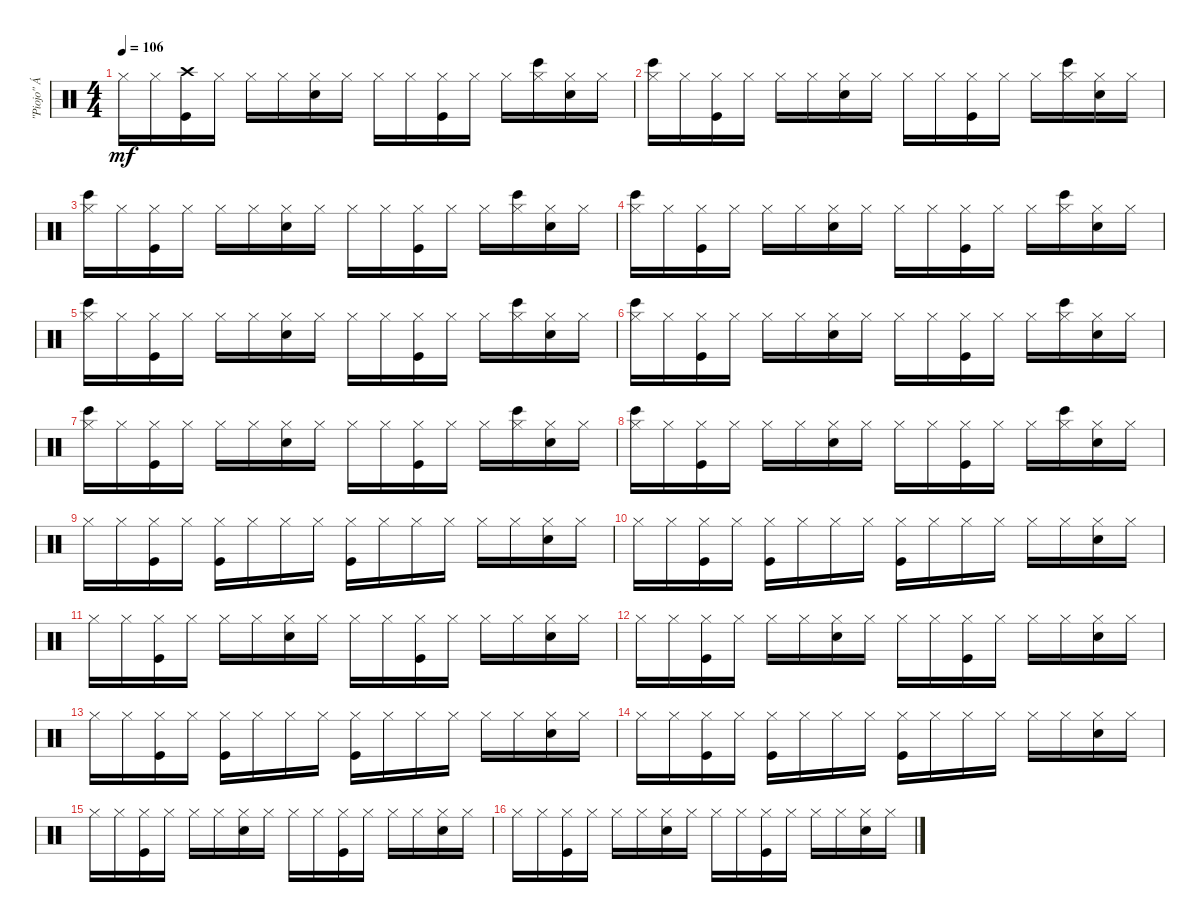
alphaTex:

\track (" \"Piojo\" Ávalos" " \"Piojo\" Á") {instrument percussion}
\staff {score}
\articulation defaults
\ts (4 4)
\tempo 106
\clef neutral
\ks c "Hi-Hat (closed)".16{dy mf} "Hi-Hat (closed)".16
("Crash high (hit)" "Kick (hit)").16 "Hi-Hat (closed)".16 "Hi-Hat (closed)".16 "Hi-Hat (closed)".16 ("Hi-Hat (closed)" "Electric Snare (hit)").16 "Hi-Hat (closed)".16 "Hi-Hat (closed)".16 "Hi-Hat (closed)".16 ("Hi-Hat (closed)" "Kick (hit)").16 "Hi-Hat (closed)".16 "Hi-Hat (closed)".16 ("Bongo High (hit)" "Hi-Hat (closed)").16 ("Hi-Hat (closed)" "Electric Snare (hit)").16 "Hi-Hat (closed)".16 |
("Bongo High (hit)" "Hi-Hat (closed)").16 "Hi-Hat (closed)".16 ("Hi-Hat (closed)" "Kick (hit)").16 "Hi-Hat (closed)".16 "Hi-Hat (closed)".16 "Hi-Hat (closed)".16 ("Hi-Hat (closed)" "Electric Snare (hit)").16 "Hi-Hat (closed)".16 "Hi-Hat (closed)".16 "Hi-Hat (closed)".16 ("Hi-Hat (closed)" "Kick (hit)").16 "Hi-Hat (closed)".16 "Hi-Hat (closed)".16 ("Bongo High (hit)" "Hi-Hat (closed)").16 ("Hi-Hat (closed)" "Electric Snare (hit)").16 "Hi-Hat (closed)".16 |
("Bongo High (hit)" "Hi-Hat (closed)").16 "Hi-Hat (closed)".16 ("Hi-Hat (closed)" "Kick (hit)").16 "Hi-Hat (closed)".16 "Hi-Hat (closed)".16 "Hi-Hat (closed)".16 ("Hi-Hat (closed)" "Electric Snare (hit)").16 "Hi-Hat (closed)".16 "Hi-Hat (closed)".16 "Hi-Hat (closed)".16 ("Hi-Hat (closed)" "Kick (hit)").16 "Hi-Hat (closed)".16 "Hi-Hat (closed)".16 ("Bongo High (hit)" "Hi-Hat (closed)").16 ("Hi-Hat (closed)" "Electric Snare (hit)").16 "Hi-Hat (closed)".16 |
("Bongo High (hit)" "Hi-Hat (closed)").16 "Hi-Hat (closed)".16 ("Hi-Hat (closed)" "Kick (hit)").16 "Hi-Hat (closed)".16 "Hi-Hat (closed)".16 "Hi-Hat (closed)".16 ("Hi-Hat (closed)" "Electric Snare (hit)").16 "Hi-Hat (closed)".16 "Hi-Hat (closed)".16 "Hi-Hat (closed)".16 ("Hi-Hat (closed)" "Kick (hit)").16 "Hi-Hat (closed)".16 "Hi-Hat (closed)".16 ("Bongo High (hit)" "Hi-Hat (closed)").16 ("Hi-Hat (closed)" "Electric Snare (hit)").16 "Hi-Hat (closed)".16 |
("Bongo High (hit)" "Hi-Hat (closed)").16 "Hi-Hat (closed)".16 ("Hi-Hat (closed)" "Kick (hit)").16 "Hi-Hat (closed)".16 "Hi-Hat (closed)".16 "Hi-Hat (closed)".16 ("Hi-Hat (closed)" "Electric Snare (hit)").16 "Hi-Hat (closed)".16 "Hi-Hat (closed)".16 "Hi-Hat (closed)".16 ("Hi-Hat (closed)" "Kick (hit)").16 "Hi-Hat (closed)".16 "Hi-Hat (closed)".16 ("Bongo High (hit)" "Hi-Hat (closed)").16 ("Hi-Hat (closed)" "Electric Snare (hit)").16 "Hi-Hat (closed)".16 |
("Bongo High (hit)" "Hi-Hat (closed)").16 "Hi-Hat (closed)".16 ("Hi-Hat (closed)" "Kick (hit)").16 "Hi-Hat (closed)".16 "Hi-Hat (closed)".16 "Hi-Hat (closed)".16 ("Hi-Hat (closed)" "Electric Snare (hit)").16 "Hi-Hat (closed)".16 "Hi-Hat (closed)".16 "Hi-Hat (closed)".16 ("Hi-Hat (closed)" "Kick (hit)").16 "Hi-Hat (closed)".16 "Hi-Hat (closed)".16 ("Bongo High (hit)" "Hi-Hat (closed)").16 ("Hi-Hat (closed)" "Electric Snare (hit)").16 "Hi-Hat (closed)".16 |
("Bongo High (hit)" "Hi-Hat (closed)").16 "Hi-Hat (closed)".16 ("Hi-Hat (closed)" "Kick (hit)").16 "Hi-Hat (closed)".16 "Hi-Hat (closed)".16 "Hi-Hat (closed)".16 ("Hi-Hat (closed)" "Electric Snare (hit)").16 "Hi-Hat (closed)".16 "Hi-Hat (closed)".16 "Hi-Hat (closed)".16 ("Hi-Hat (closed)" "Kick (hit)").16 "Hi-Hat (closed)".16 "Hi-Hat (closed)".16 ("Bongo High (hit)" "Hi-Hat (closed)").16 ("Hi-Hat (closed)" "Electric Snare (hit)").16 "Hi-Hat (closed)".16 |
("Bongo High (hit)" "Hi-Hat (closed)").16 "Hi-Hat (closed)".16 ("Hi-Hat (closed)" "Kick (hit)").16 "Hi-Hat (closed)".16 "Hi-Hat (closed)".16 "Hi-Hat (closed)".16 ("Hi-Hat (closed)" "Electric Snare (hit)").16 "Hi-Hat (closed)".16 "Hi-Hat (closed)".16 "Hi-Hat (closed)".16 ("Hi-Hat (closed)" "Kick (hit)").16 "Hi-Hat (closed)".16 "Hi-Hat (closed)".16 ("Bongo High (hit)" "Hi-Hat (closed)").16 ("Hi-Hat (closed)" "Electric Snare (hit)").16 "Hi-Hat (closed)".16 |
"Hi-Hat (closed)".16 "Hi-Hat (closed)".16 ("Hi-Hat (closed)" "Kick (hit)").16 "Hi-Hat (closed)".16 ("Hi-Hat (closed)" "Kick (hit)").16 "Hi-Hat (closed)".16 "Hi-Hat (closed)".16 "Hi-Hat (closed)".16 ("Hi-Hat (closed)" "Kick (hit)").16 "Hi-Hat (closed)".16 "Hi-Hat (closed)".16 "Hi-Hat (closed)".16 "Hi-Hat (closed)".16 "Hi-Hat (closed)".16 ("Hi-Hat (closed)" "Electric Snare (hit)").16 "Hi-Hat (closed)".16 |
"Hi-Hat (closed)".16 "Hi-Hat (closed)".16 ("Hi-Hat (closed)" "Kick (hit)").16 "Hi-Hat (closed)".16 ("Hi-Hat (closed)" "Kick (hit)").16 "Hi-Hat (closed)".16 "Hi-Hat (closed)".16 "Hi-Hat (closed)".16 ("Hi-Hat (closed)" "Kick (hit)").16 "Hi-Hat (closed)".16 "Hi-Hat (closed)".16 "Hi-Hat (closed)".16 "Hi-Hat (closed)".16 "Hi-Hat (closed)".16 ("Hi-Hat (closed)" "Electric Snare (hit)").16 "Hi-Hat (closed)".16 |
"Hi-Hat (closed)".16 "Hi-Hat (closed)".16 ("Hi-Hat (closed)" "Kick (hit)").16 "Hi-Hat (closed)".16 "Hi-Hat (closed)".16 "Hi-Hat (closed)".16 ("Hi-Hat (closed)" "Electric Snare (hit)").16 "Hi-Hat (closed)".16 "Hi-Hat (closed)".16 "Hi-Hat (closed)".16 ("Hi-Hat (closed)" "Kick (hit)").16 "Hi-Hat (closed)".16 "Hi-Hat (closed)".16 "Hi-Hat (closed)".16 ("Hi-Hat (closed)" "Electric Snare (hit)").16 "Hi-Hat (closed)".16 |
"Hi-Hat (closed)".16 "Hi-Hat (closed)".16 ("Hi-Hat (closed)" "Kick (hit)").16 "Hi-Hat (closed)".16 "Hi-Hat (closed)".16 "Hi-Hat (closed)".16 ("Hi-Hat (closed)" "Electric Snare (hit)").16 "Hi-Hat (closed)".16 "Hi-Hat (closed)".16 "Hi-Hat (closed)".16 ("Hi-Hat (closed)" "Kick (hit)").16 "Hi-Hat (closed)".16 "Hi-Hat (closed)".16 "Hi-Hat (closed)".16 ("Hi-Hat (closed)" "Electric Snare (hit)").16 "Hi-Hat (closed)".16 |
"Hi-Hat (closed)".16 "Hi-Hat (closed)".16 ("Hi-Hat (closed)" "Kick (hit)").16 "Hi-Hat (closed)".16 ("Hi-Hat (closed)" "Kick (hit)").16 "Hi-Hat (closed)".16 "Hi-Hat (closed)".16 "Hi-Hat (closed)".16 ("Hi-Hat (closed)" "Kick (hit)").16 "Hi-Hat (closed)".16 "Hi-Hat (closed)".16 "Hi-Hat (closed)".16 "Hi-Hat (closed)".16 "Hi-Hat (closed)".16 ("Hi-Hat (closed)" "Electric Snare (hit)").16 "Hi-Hat (closed)".16 |
"Hi-Hat (closed)".16 "Hi-Hat (closed)".16 ("Hi-Hat (closed)" "Kick (hit)").16 "Hi-Hat (closed)".16 ("Hi-Hat (closed)" "Kick (hit)").16 "Hi-Hat (closed)".16 "Hi-Hat (closed)".16 "Hi-Hat (closed)".16 ("Hi-Hat (closed)" "Kick (hit)").16 "Hi-Hat (closed)".16 "Hi-Hat (closed)".16 "Hi-Hat (closed)".16 "Hi-Hat (closed)".16 "Hi-Hat (closed)".16 ("Hi-Hat (closed)" "Electric Snare (hit)").16 "Hi-Hat (closed)".16 |
"Hi-Hat (closed)".16 "Hi-Hat (closed)".16 ("Hi-Hat (closed)" "Kick (hit)").16 "Hi-Hat (closed)".16 "Hi-Hat (closed)".16 "Hi-Hat (closed)".16 ("Hi-Hat (closed)" "Electric Snare (hit)").16 "Hi-Hat (closed)".16 "Hi-Hat (closed)".16 "Hi-Hat (closed)".16 ("Hi-Hat (closed)" "Kick (hit)").16 "Hi-Hat (closed)".16 "Hi-Hat (closed)".16 "Hi-Hat (closed)".16 ("Hi-Hat (closed)" "Electric Snare (hit)").16 "Hi-Hat (closed)".16 |
"Hi-Hat (closed)".16 "Hi-Hat (closed)".16 ("Hi-Hat (closed)" "Kick (hit)").16 "Hi-Hat (closed)".16 "Hi-Hat (closed)".16 "Hi-Hat (closed)".16 ("Hi-Hat (closed)" "Electric Snare (hit)").16 "Hi-Hat (closed)".16 "Hi-Hat (closed)".16 "Hi-Hat (closed)".16 ("Hi-Hat (closed)" "Kick (hit)").16 "Hi-Hat (closed)".16 "Hi-Hat (closed)".16 "Hi-Hat (closed)".16 ("Hi-Hat (closed)" "Electric Snare (hit)").16 "Hi-Hat (closed)".16
